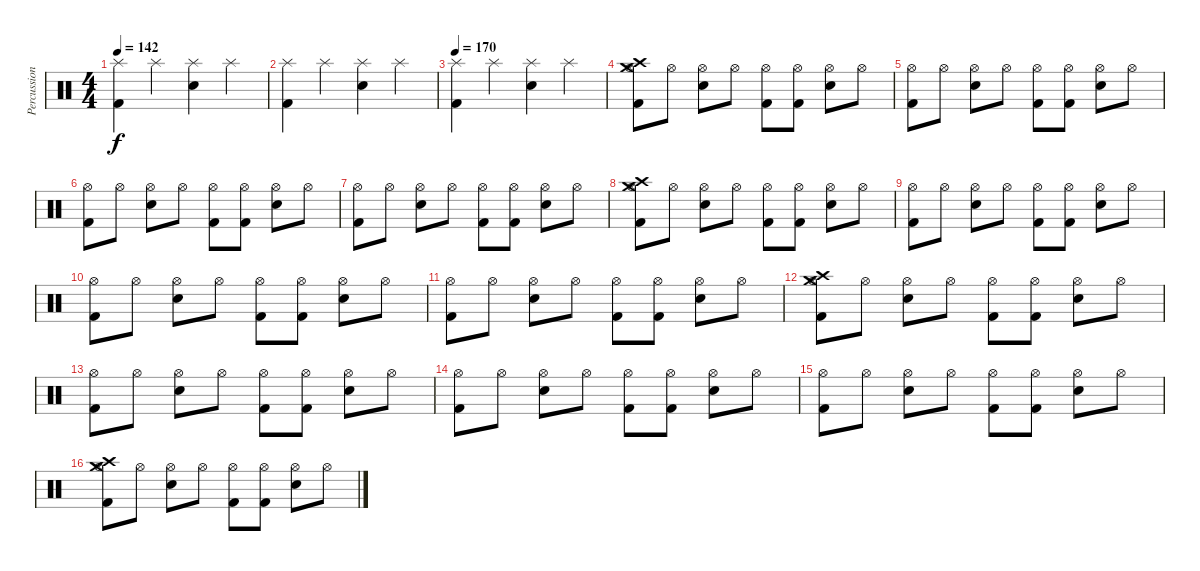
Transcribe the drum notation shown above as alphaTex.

\track ("Percussions" "Percussion") {instrument percussion}
\staff {score}
\articulation defaults
\ts (4 4)
\tempo 142
\clef neutral
\ks c
("Splash (hit)" "Kick (hit) 2").4{dy f} "Splash (hit)".4 ("Splash (hit)" "Snare (hit) 2").4 "Splash (hit)".4 |
("Splash (hit)" "Kick (hit) 2").4 "Splash (hit)".4 ("Splash (hit)" "Snare (hit) 2").4 "Splash (hit)".4 |
\tempo 170
("Splash (hit)" "Kick (hit) 2").4 "Splash (hit)".4 ("Splash (hit)" "Snare (hit) 2").4 "Splash (hit)".4 |
("Crash medium (hit)" "Crash high (hit)" "Hi-Hat (open)" "Kick (hit) 2").8 "Hi-Hat (open)".8 ("Hi-Hat (open)" "Snare (hit) 2").8 "Hi-Hat (open)".8 ("Hi-Hat (open)" "Kick (hit) 2").8 ("Hi-Hat (open)" "Kick (hit) 2").8 ("Hi-Hat (open)" "Snare (hit) 2").8 "Hi-Hat (open)".8 |
("Hi-Hat (open)" "Kick (hit) 2").8 "Hi-Hat (open)".8 ("Hi-Hat (open)" "Snare (hit) 2").8 "Hi-Hat (open)".8 ("Hi-Hat (open)" "Kick (hit) 2").8 ("Hi-Hat (open)" "Kick (hit) 2").8 ("Hi-Hat (open)" "Snare (hit) 2").8 "Hi-Hat (open)".8 |
("Hi-Hat (open)" "Kick (hit) 2").8 "Hi-Hat (open)".8 ("Hi-Hat (open)" "Snare (hit) 2").8 "Hi-Hat (open)".8 ("Hi-Hat (open)" "Kick (hit) 2").8 ("Hi-Hat (open)" "Kick (hit) 2").8 ("Hi-Hat (open)" "Snare (hit) 2").8 "Hi-Hat (open)".8 |
("Hi-Hat (open)" "Kick (hit) 2").8 "Hi-Hat (open)".8 ("Hi-Hat (open)" "Snare (hit) 2").8 "Hi-Hat (open)".8 ("Hi-Hat (open)" "Kick (hit) 2").8 ("Hi-Hat (open)" "Kick (hit) 2").8 ("Hi-Hat (open)" "Snare (hit) 2").8 "Hi-Hat (open)".8 |
("Crash medium (hit)" "Crash high (hit)" "Hi-Hat (open)" "Kick (hit) 2").8 "Hi-Hat (open)".8 ("Hi-Hat (open)" "Snare (hit) 2").8 "Hi-Hat (open)".8 ("Hi-Hat (open)" "Kick (hit) 2").8 ("Hi-Hat (open)" "Kick (hit) 2").8 ("Hi-Hat (open)" "Snare (hit) 2").8 "Hi-Hat (open)".8 |
("Hi-Hat (open)" "Kick (hit) 2").8 "Hi-Hat (open)".8 ("Hi-Hat (open)" "Snare (hit) 2").8 "Hi-Hat (open)".8 ("Hi-Hat (open)" "Kick (hit) 2").8 ("Hi-Hat (open)" "Kick (hit) 2").8 ("Hi-Hat (open)" "Snare (hit) 2").8 "Hi-Hat (open)".8 |
("Hi-Hat (open)" "Kick (hit) 2").8 "Hi-Hat (open)".8 ("Hi-Hat (open)" "Snare (hit) 2").8 "Hi-Hat (open)".8 ("Hi-Hat (open)" "Kick (hit) 2").8 ("Hi-Hat (open)" "Kick (hit) 2").8 ("Hi-Hat (open)" "Snare (hit) 2").8 "Hi-Hat (open)".8 |
("Hi-Hat (open)" "Kick (hit) 2").8 "Hi-Hat (open)".8 ("Hi-Hat (open)" "Snare (hit) 2").8 "Hi-Hat (open)".8 ("Hi-Hat (open)" "Kick (hit) 2").8 ("Hi-Hat (open)" "Kick (hit) 2").8 ("Hi-Hat (open)" "Snare (hit) 2").8 "Hi-Hat (open)".8 |
("Crash medium (hit)" "Crash high (hit)" "Hi-Hat (open)" "Kick (hit) 2").8 "Hi-Hat (open)".8 ("Hi-Hat (open)" "Snare (hit) 2").8 "Hi-Hat (open)".8 ("Hi-Hat (open)" "Kick (hit) 2").8 ("Hi-Hat (open)" "Kick (hit) 2").8 ("Hi-Hat (open)" "Snare (hit) 2").8 "Hi-Hat (open)".8 |
("Hi-Hat (open)" "Kick (hit) 2").8 "Hi-Hat (open)".8 ("Hi-Hat (open)" "Snare (hit) 2").8 "Hi-Hat (open)".8 ("Hi-Hat (open)" "Kick (hit) 2").8 ("Hi-Hat (open)" "Kick (hit) 2").8 ("Hi-Hat (open)" "Snare (hit) 2").8 "Hi-Hat (open)".8 |
("Hi-Hat (open)" "Kick (hit) 2").8 "Hi-Hat (open)".8 ("Hi-Hat (open)" "Snare (hit) 2").8 "Hi-Hat (open)".8 ("Hi-Hat (open)" "Kick (hit) 2").8 ("Hi-Hat (open)" "Kick (hit) 2").8 ("Hi-Hat (open)" "Snare (hit) 2").8 "Hi-Hat (open)".8 |
("Hi-Hat (open)" "Kick (hit) 2").8 "Hi-Hat (open)".8 ("Hi-Hat (open)" "Snare (hit) 2").8 "Hi-Hat (open)".8 ("Hi-Hat (open)" "Kick (hit) 2").8 ("Hi-Hat (open)" "Kick (hit) 2").8 ("Hi-Hat (open)" "Snare (hit) 2").8 "Hi-Hat (open)".8 |
("Crash medium (hit)" "Crash high (hit)" "Hi-Hat (open)" "Kick (hit) 2").8 "Hi-Hat (open)".8 ("Hi-Hat (open)" "Snare (hit) 2").8 "Hi-Hat (open)".8 ("Hi-Hat (open)" "Kick (hit) 2").8 ("Hi-Hat (open)" "Kick (hit) 2").8 ("Hi-Hat (open)" "Snare (hit) 2").8 "Hi-Hat (open)".8
